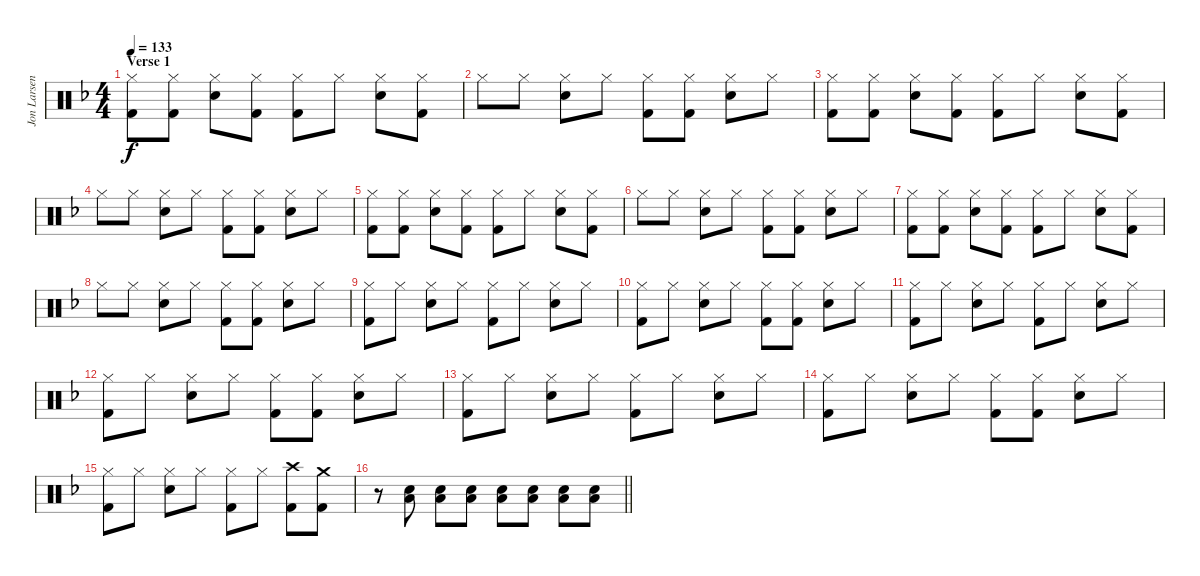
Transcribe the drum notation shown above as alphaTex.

\track ("Jon Larsen" "Jon Larsen") {instrument percussion}
\staff {score}
\articulation defaults
\ts (4 4)
\section ("" "Verse 1")
\tempo 133
\clef neutral
\ks f
("Hi-Hat (closed)" "Kick (hit) 2").8{dy f} ("Hi-Hat (closed)" "Kick (hit) 2").8 ("Hi-Hat (closed)" "Electric Snare (hit)").8 ("Hi-Hat (closed)" "Kick (hit) 2").8 ("Hi-Hat (closed)" "Kick (hit) 2").8 "Hi-Hat (closed)".8 ("Hi-Hat (closed)" "Electric Snare (hit)").8 ("Hi-Hat (closed)" "Kick (hit) 2").8 |
"Hi-Hat (closed)".8 "Hi-Hat (closed)".8 ("Hi-Hat (closed)" "Electric Snare (hit)").8 "Hi-Hat (closed)".8 ("Hi-Hat (closed)" "Kick (hit) 2").8 ("Hi-Hat (closed)" "Kick (hit) 2").8 ("Hi-Hat (closed)" "Electric Snare (hit)").8 "Hi-Hat (closed)".8 |
("Hi-Hat (closed)" "Kick (hit) 2").8 ("Hi-Hat (closed)" "Kick (hit) 2").8 ("Hi-Hat (closed)" "Electric Snare (hit)").8 ("Hi-Hat (closed)" "Kick (hit) 2").8 ("Hi-Hat (closed)" "Kick (hit) 2").8 "Hi-Hat (closed)".8 ("Hi-Hat (closed)" "Electric Snare (hit)").8 ("Hi-Hat (closed)" "Kick (hit) 2").8 |
"Hi-Hat (closed)".8 "Hi-Hat (closed)".8 ("Hi-Hat (closed)" "Electric Snare (hit)").8 "Hi-Hat (closed)".8 ("Hi-Hat (closed)" "Kick (hit) 2").8 ("Hi-Hat (closed)" "Kick (hit) 2").8 ("Hi-Hat (closed)" "Electric Snare (hit)").8 "Hi-Hat (closed)".8 |
("Hi-Hat (closed)" "Kick (hit) 2").8 ("Hi-Hat (closed)" "Kick (hit) 2").8 ("Hi-Hat (closed)" "Electric Snare (hit)").8 ("Hi-Hat (closed)" "Kick (hit) 2").8 ("Hi-Hat (closed)" "Kick (hit) 2").8 "Hi-Hat (closed)".8 ("Hi-Hat (closed)" "Electric Snare (hit)").8 ("Hi-Hat (closed)" "Kick (hit) 2").8 |
"Hi-Hat (closed)".8 "Hi-Hat (closed)".8 ("Hi-Hat (closed)" "Electric Snare (hit)").8 "Hi-Hat (closed)".8 ("Hi-Hat (closed)" "Kick (hit) 2").8 ("Hi-Hat (closed)" "Kick (hit) 2").8 ("Hi-Hat (closed)" "Electric Snare (hit)").8 "Hi-Hat (closed)".8 |
("Hi-Hat (closed)" "Kick (hit) 2").8 ("Hi-Hat (closed)" "Kick (hit) 2").8 ("Hi-Hat (closed)" "Electric Snare (hit)").8 ("Hi-Hat (closed)" "Kick (hit) 2").8 ("Hi-Hat (closed)" "Kick (hit) 2").8 "Hi-Hat (closed)".8 ("Hi-Hat (closed)" "Electric Snare (hit)").8 ("Hi-Hat (closed)" "Kick (hit) 2").8 |
"Hi-Hat (closed)".8 "Hi-Hat (closed)".8 ("Hi-Hat (closed)" "Electric Snare (hit)").8 "Hi-Hat (closed)".8 ("Hi-Hat (closed)" "Kick (hit) 2").8 ("Hi-Hat (closed)" "Kick (hit) 2").8 ("Hi-Hat (closed)" "Electric Snare (hit)").8 "Hi-Hat (closed)".8 |
("Hi-Hat (closed)" "Kick (hit) 2").8 "Hi-Hat (closed)".8 ("Hi-Hat (closed)" "Electric Snare (hit)").8 "Hi-Hat (closed)".8 ("Hi-Hat (closed)" "Kick (hit) 2").8 "Hi-Hat (closed)".8 ("Hi-Hat (closed)" "Electric Snare (hit)").8 "Hi-Hat (closed)".8 |
("Hi-Hat (closed)" "Kick (hit) 2").8 "Hi-Hat (closed)".8 ("Hi-Hat (closed)" "Electric Snare (hit)").8 "Hi-Hat (closed)".8 ("Hi-Hat (closed)" "Kick (hit) 2").8 ("Hi-Hat (closed)" "Kick (hit) 2").8 ("Hi-Hat (closed)" "Electric Snare (hit)").8 "Hi-Hat (closed)".8 |
("Hi-Hat (closed)" "Kick (hit) 2").8 "Hi-Hat (closed)".8 ("Hi-Hat (closed)" "Electric Snare (hit)").8 "Hi-Hat (closed)".8 ("Hi-Hat (closed)" "Kick (hit) 2").8 "Hi-Hat (closed)".8 ("Hi-Hat (closed)" "Electric Snare (hit)").8 "Hi-Hat (closed)".8 |
("Hi-Hat (closed)" "Kick (hit) 2").8 "Hi-Hat (closed)".8 ("Hi-Hat (closed)" "Electric Snare (hit)").8 "Hi-Hat (closed)".8 ("Hi-Hat (closed)" "Kick (hit) 2").8 ("Hi-Hat (closed)" "Kick (hit) 2").8 ("Hi-Hat (closed)" "Electric Snare (hit)").8 "Hi-Hat (closed)".8 |
("Hi-Hat (closed)" "Kick (hit) 2").8 "Hi-Hat (closed)".8 ("Hi-Hat (closed)" "Electric Snare (hit)").8 "Hi-Hat (closed)".8 ("Hi-Hat (closed)" "Kick (hit) 2").8 "Hi-Hat (closed)".8 ("Hi-Hat (closed)" "Electric Snare (hit)").8 "Hi-Hat (closed)".8 |
("Hi-Hat (closed)" "Kick (hit) 2").8 "Hi-Hat (closed)".8 ("Hi-Hat (closed)" "Electric Snare (hit)").8 "Hi-Hat (closed)".8 ("Hi-Hat (closed)" "Kick (hit) 2").8 ("Hi-Hat (closed)" "Kick (hit) 2").8 ("Hi-Hat (closed)" "Electric Snare (hit)").8 "Hi-Hat (closed)".8 |
("Hi-Hat (closed)" "Kick (hit) 2").8 "Hi-Hat (closed)".8 ("Hi-Hat (closed)" "Electric Snare (hit)").8 "Hi-Hat (closed)".8 ("Hi-Hat (closed)" "Kick (hit) 2").8 "Hi-Hat (closed)".8 ("Crash high (hit)" "Kick (hit) 2").8 ("Crash medium (hit)" "Kick (hit) 2").8 |
\barLineRight lightlight
r.8 ("Low Tom (hit)" "Electric Snare (hit)").8 ("Low Tom (hit)" "Electric Snare (hit)").8 ("Low Tom (hit)" "Electric Snare (hit)").8 ("Low Tom (hit)" "Electric Snare (hit)").8 ("Low Tom (hit)" "Electric Snare (hit)").8 ("Low Tom (hit)" "Electric Snare (hit)").8 ("Low Tom (hit)" "Electric Snare (hit)").8
